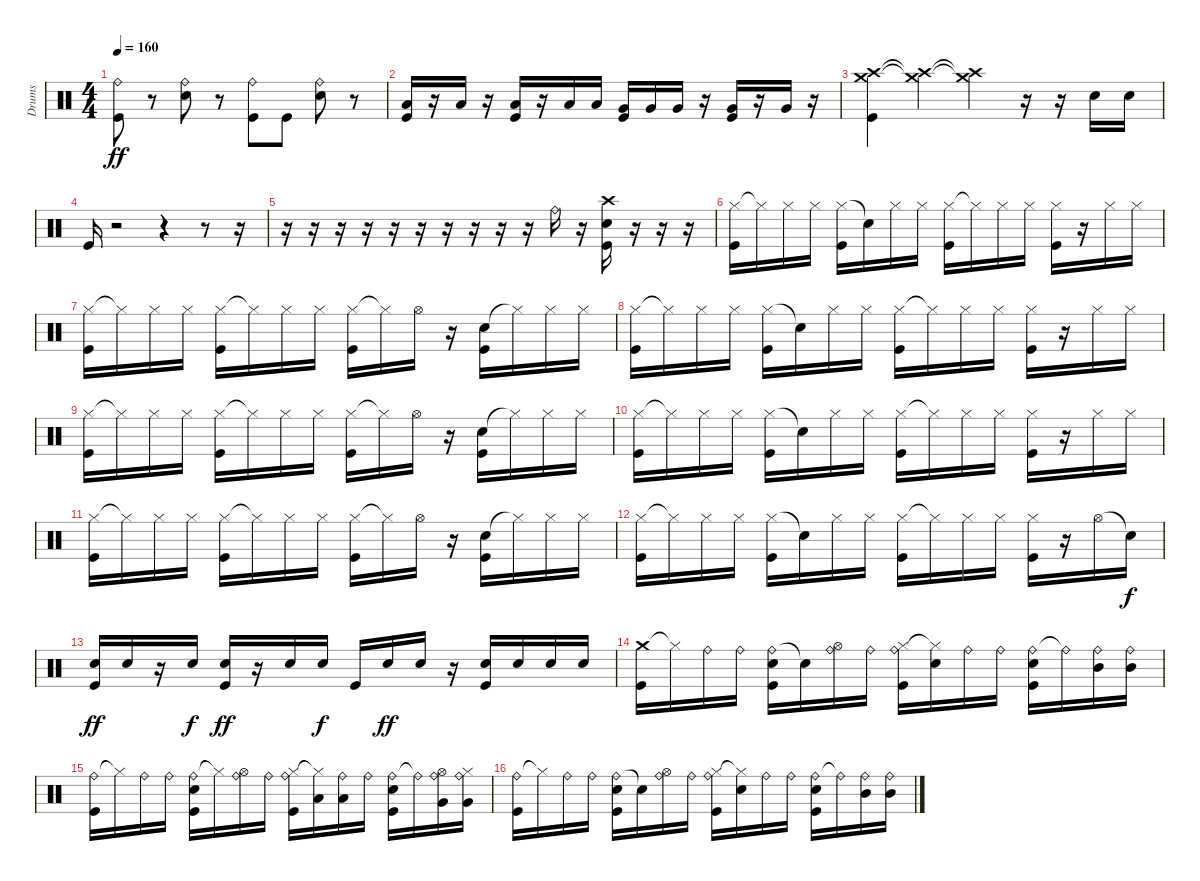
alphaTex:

\track ("Drums" "Drums") {instrument percussion}
\staff {score}
\articulation defaults
\ts (4 4)
\tempo 160
\clef neutral
\ks c
("Ride (bell)" "Kick (hit)").8{dy ff} r.8 ("Ride (bell)" "Electric Snare (hit)").8 r.8 ("Ride (bell)" "Kick (hit)").8 "Kick (hit)".8 ("Ride (bell)" "Electric Snare (hit)").8 r.8 |
("Low Tom (hit)" "Kick (hit)").16 r.16 "Low Tom (hit)".16 r.16 ("Low Tom (hit)" "Kick (hit)").16 r.16 "Low Tom (hit)".16 "Low Tom (hit)".16 ("Very Low Tom (hit)" "Kick (hit)").16 "Very Low Tom (hit)".16 "Very Low Tom (hit)".16 r.16 ("Very Low Tom (hit)" "Kick (hit)").16 r.16 "Very Low Tom (hit)".16 r.16 |
("Crash medium (hit)" "Crash high (hit)" "Kick (hit)").4 ("Crash medium (hit)"{t} "Crash high (hit)"{t}).4 ("Crash medium (hit)"{t} "Crash high (hit)"{t}).4 r.16 r.16 "Electric Snare (hit)".16 "Electric Snare (hit)".16 |
"Kick (hit)".16 r.2 r.4 r.8 r.16 |
r.16 r.16 r.16 r.16 r.16 r.16 r.16 r.16 r.16 r.16 "Ride (bell)".16 r.16 ("Crash high (hit)" "Electric Snare (hit)" "Kick (hit)").16 r.16 r.16 r.16 |
("Hi-Hat (closed)" "Kick (hit)").16 "Hi-Hat (closed)"{t}.16 "Hi-Hat (closed)".16 "Hi-Hat (closed)".16 ("Hi-Hat (closed)" "Kick (hit)").16 "Snare (hit)"{t}.16 "Hi-Hat (closed)".16 "Hi-Hat (closed)".16 ("Hi-Hat (closed)" "Kick (hit)").16 "Hi-Hat (closed)"{t}.16 "Hi-Hat (closed)".16 "Hi-Hat (closed)".16 ("Hi-Hat (closed)" "Kick (hit)").16 r.16 "Hi-Hat (closed)".16 "Hi-Hat (closed)".16 |
("Hi-Hat (closed)" "Kick (hit)").16 "Hi-Hat (closed)"{t}.16 "Hi-Hat (closed)".16 "Hi-Hat (closed)".16 ("Hi-Hat (closed)" "Kick (hit)").16 "Hi-Hat (closed)"{t}.16 "Hi-Hat (closed)".16 "Hi-Hat (closed)".16 ("Hi-Hat (closed)" "Kick (hit)").16 "Hi-Hat (closed)"{t}.16 "Hi-Hat (open)".16 r.16 ("Electric Snare (hit)" "Kick (hit)").16 "Hi-Hat (closed)"{t}.16 "Hi-Hat (closed)".16 "Hi-Hat (closed)".16 |
("Hi-Hat (closed)" "Kick (hit)").16 "Hi-Hat (closed)"{t}.16 "Hi-Hat (closed)".16 "Hi-Hat (closed)".16 ("Hi-Hat (closed)" "Kick (hit)").16 "Snare (hit)"{t}.16 "Hi-Hat (closed)".16 "Hi-Hat (closed)".16 ("Hi-Hat (closed)" "Kick (hit)").16 "Hi-Hat (closed)"{t}.16 "Hi-Hat (closed)".16 "Hi-Hat (closed)".16 ("Hi-Hat (closed)" "Kick (hit)").16 r.16 "Hi-Hat (closed)".16 "Hi-Hat (closed)".16 |
("Hi-Hat (closed)" "Kick (hit)").16 "Hi-Hat (closed)"{t}.16 "Hi-Hat (closed)".16 "Hi-Hat (closed)".16 ("Hi-Hat (closed)" "Kick (hit)").16 "Hi-Hat (closed)"{t}.16 "Hi-Hat (closed)".16 "Hi-Hat (closed)".16 ("Hi-Hat (closed)" "Kick (hit)").16 "Hi-Hat (closed)"{t}.16 "Hi-Hat (open)".16 r.16 ("Electric Snare (hit)" "Kick (hit)").16 "Hi-Hat (closed)"{t}.16 "Hi-Hat (closed)".16 "Hi-Hat (closed)".16 |
("Hi-Hat (closed)" "Kick (hit)").16 "Hi-Hat (closed)"{t}.16 "Hi-Hat (closed)".16 "Hi-Hat (closed)".16 ("Hi-Hat (closed)" "Kick (hit)").16 "Snare (hit)"{t}.16 "Hi-Hat (closed)".16 "Hi-Hat (closed)".16 ("Hi-Hat (closed)" "Kick (hit)").16 "Hi-Hat (closed)"{t}.16 "Hi-Hat (closed)".16 "Hi-Hat (closed)".16 ("Hi-Hat (closed)" "Kick (hit)").16 r.16 "Hi-Hat (closed)".16 "Hi-Hat (closed)".16 |
("Hi-Hat (closed)" "Kick (hit)").16 "Hi-Hat (closed)"{t}.16 "Hi-Hat (closed)".16 "Hi-Hat (closed)".16 ("Hi-Hat (closed)" "Kick (hit)").16 "Hi-Hat (closed)"{t}.16 "Hi-Hat (closed)".16 "Hi-Hat (closed)".16 ("Hi-Hat (closed)" "Kick (hit)").16 "Hi-Hat (closed)"{t}.16 "Hi-Hat (open)".16 r.16 ("Electric Snare (hit)" "Kick (hit)").16 "Hi-Hat (closed)"{t}.16 "Hi-Hat (closed)".16 "Hi-Hat (closed)".16 |
("Hi-Hat (closed)" "Kick (hit)").16 "Hi-Hat (closed)"{t}.16 "Hi-Hat (closed)".16 "Hi-Hat (closed)".16 ("Hi-Hat (closed)" "Kick (hit)").16 "Snare (hit)"{t}.16 "Hi-Hat (closed)".16 "Hi-Hat (closed)".16 ("Hi-Hat (closed)" "Kick (hit)").16 "Hi-Hat (closed)"{t}.16 "Hi-Hat (closed)".16 "Hi-Hat (closed)".16 ("Hi-Hat (closed)" "Kick (hit)").16 r.16 "Hi-Hat (open)".16 "Snare (hit)"{t}.16{dy f} |
("Electric Snare (hit)" "Kick (hit)").16{dy ff} "Electric Snare (hit)".16 r.16 "Electric Snare (hit)".16{dy f} ("Electric Snare (hit)" "Kick (hit)").16{dy ff} r.16 "Electric Snare (hit)".16 "Electric Snare (hit)".16{dy f} "Kick (hit)".16 "Electric Snare (hit)".16{dy ff} "Electric Snare (hit)".16 r.16 ("Electric Snare (hit)" "Kick (hit)").16 "Electric Snare (hit)".16 "Electric Snare (hit)".16 "Electric Snare (hit)".16 |
("Crash medium (hit)" "Kick (hit)").16 "Hi-Hat (closed)"{t}.16 "Ride (bell)".16 "Ride (bell)".16 ("Ride (bell)" "Electric Snare (hit)" "Kick (hit)").16 "Snare (hit)"{t}.16 ("Ride (bell)" "Hi-Hat (open)").16 "Ride (bell)".16 ("Ride (bell)" "Hi-Hat (closed)" "Kick (hit)").16 ("Hi-Hat (closed)"{t} "Electric Snare (hit)").16 "Ride (bell)".16 "Ride (bell)".16 ("Ride (bell)" "Electric Snare (hit)" "Kick (hit)").16 "Ride (bell)"{t}.16 ("Ride (bell)" "Mid Tom (hit)").16 ("Ride (bell)" "Mid Tom (hit)").16 |
("Ride (bell)" "Kick (hit)").16 "Hi-Hat (closed)"{t}.16 "Ride (bell)".16 "Ride (bell)".16 ("Ride (bell)" "Electric Snare (hit)" "Kick (hit)").16 "Hi-Hat (closed)"{t}.16 ("Ride (bell)" "Hi-Hat (open)").16 "Ride (bell)".16 ("Ride (bell)" "Hi-Hat (closed)" "Kick (hit)").16 ("Hi-Hat (closed)"{t} "Low Tom (hit)").16 ("Ride (bell)" "Low Tom (hit)").16 "Ride (bell)".16 ("Ride (bell)" "Electric Snare (hit)" "Kick (hit)").16 "Ride (bell)"{t}.16 ("Ride (bell)" "Hi-Hat (open)" "Very Low Tom (hit)").16 ("Ride (bell)" "Hi-Hat (closed)" "Very Low Tom (hit)").16 |
("Ride (bell)" "Kick (hit)").16 "Hi-Hat (closed)"{t}.16 "Ride (bell)".16 "Ride (bell)".16 ("Ride (bell)" "Electric Snare (hit)" "Kick (hit)").16 "Snare (hit)"{t}.16 ("Ride (bell)" "Hi-Hat (open)").16 "Ride (bell)".16 ("Ride (bell)" "Hi-Hat (closed)" "Kick (hit)").16 ("Hi-Hat (closed)"{t} "Electric Snare (hit)").16 "Ride (bell)".16 "Ride (bell)".16 ("Ride (bell)" "Electric Snare (hit)" "Kick (hit)").16 "Ride (bell)"{t}.16 ("Ride (bell)" "Mid Tom (hit)").16 ("Ride (bell)" "Mid Tom (hit)").16
